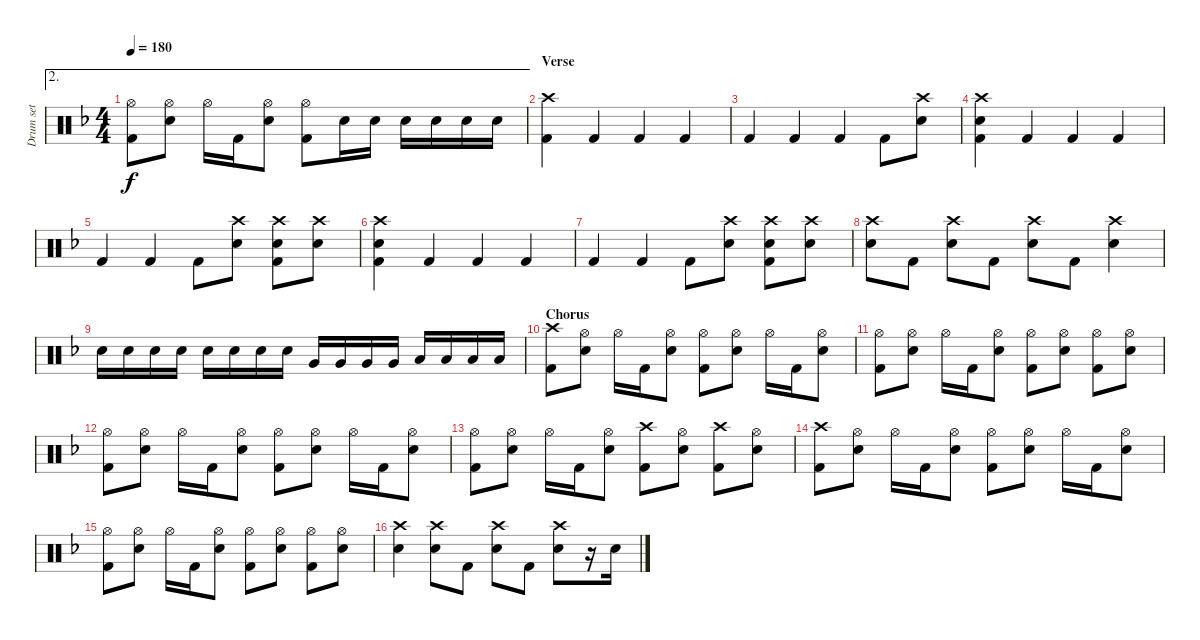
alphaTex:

\track ("Drum set" "Drum set") {instrument percussion}
\staff {score}
\articulation defaults
\ae 2
\ts (4 4)
\tempo 180
\clef neutral
\ks f
("Hi-Hat (open)" "Kick (hit) 2").8{dy f} ("Hi-Hat (open)" "Electric Snare (hit)").8 "Hi-Hat (open)".16 "Kick (hit) 2".16 ("Hi-Hat (open)" "Electric Snare (hit)").8 ("Hi-Hat (open)" "Kick (hit) 2").8 "Electric Snare (hit)".16 "Electric Snare (hit)".16 "Electric Snare (hit)".16 "Electric Snare (hit)".16 "Electric Snare (hit)".16 "Electric Snare (hit)".16 |
\section ("" "Verse")
("Crash high (hit)" "Kick (hit) 2").4 "Kick (hit) 2".4 "Kick (hit) 2".4 "Kick (hit) 2".4 |
"Kick (hit) 2".4 "Kick (hit) 2".4 "Kick (hit) 2".4 "Kick (hit) 2".8 ("Crash high (hit)" "Electric Snare (hit)").8 |
("Crash high (hit)" "Electric Snare (hit)" "Kick (hit) 2").4 "Kick (hit) 2".4 "Kick (hit) 2".4 "Kick (hit) 2".4 |
"Kick (hit) 2".4 "Kick (hit) 2".4 "Kick (hit) 2".8 ("Crash high (hit)" "Electric Snare (hit)").8 ("Crash high (hit)" "Electric Snare (hit)" "Kick (hit) 2").8 ("Crash high (hit)" "Electric Snare (hit)").8 |
("Crash high (hit)" "Electric Snare (hit)" "Kick (hit) 2").4 "Kick (hit) 2".4 "Kick (hit) 2".4 "Kick (hit) 2".4 |
"Kick (hit) 2".4 "Kick (hit) 2".4 "Kick (hit) 2".8 ("Crash high (hit)" "Electric Snare (hit)").8 ("Crash high (hit)" "Electric Snare (hit)" "Kick (hit) 2").8 ("Crash high (hit)" "Electric Snare (hit)").8 |
("Crash high (hit)" "Electric Snare (hit)").8 "Kick (hit) 2".8 ("Crash high (hit)" "Electric Snare (hit)").8 "Kick (hit) 2".8 ("Crash high (hit)" "Electric Snare (hit)").8 "Kick (hit) 2".8 ("Crash high (hit)" "Electric Snare (hit)").4 |
"Electric Snare (hit)".16 "Electric Snare (hit)".16 "Electric Snare (hit)".16 "Electric Snare (hit)".16 "Electric Snare (hit)".16 "Electric Snare (hit)".16 "Electric Snare (hit)".16 "Electric Snare (hit)".16 "Very Low Tom (hit)".16 "Very Low Tom (hit)".16 "Very Low Tom (hit)".16 "Very Low Tom (hit)".16 "Low Floor Tom (hit)".16 "Low Floor Tom (hit)".16 "Low Floor Tom (hit)".16 "Low Floor Tom (hit)".16 |
\section ("" "Chorus")
("Crash high (hit)" "Kick (hit) 2").8 ("Hi-Hat (open)" "Electric Snare (hit)").8 "Hi-Hat (open)".16 "Kick (hit) 2".16 ("Hi-Hat (open)" "Electric Snare (hit)").8 ("Hi-Hat (open)" "Kick (hit) 2").8 ("Hi-Hat (open)" "Electric Snare (hit)").8 "Hi-Hat (open)".16 "Kick (hit) 2".16 ("Hi-Hat (open)" "Electric Snare (hit)").8 |
("Hi-Hat (open)" "Kick (hit) 2").8 ("Hi-Hat (open)" "Electric Snare (hit)").8 "Hi-Hat (open)".16 "Kick (hit) 2".16 ("Hi-Hat (open)" "Electric Snare (hit)").8 ("Hi-Hat (open)" "Kick (hit) 2").8 ("Hi-Hat (open)" "Electric Snare (hit)").8 ("Hi-Hat (open)" "Kick (hit) 2").8 ("Hi-Hat (open)" "Electric Snare (hit)").8 |
("Hi-Hat (open)" "Kick (hit) 2").8 ("Hi-Hat (open)" "Electric Snare (hit)").8 "Hi-Hat (open)".16 "Kick (hit) 2".16 ("Hi-Hat (open)" "Electric Snare (hit)").8 ("Hi-Hat (open)" "Kick (hit) 2").8 ("Hi-Hat (open)" "Electric Snare (hit)").8 "Hi-Hat (open)".16 "Kick (hit) 2".16 ("Hi-Hat (open)" "Electric Snare (hit)").8 |
("Hi-Hat (open)" "Kick (hit) 2").8 ("Hi-Hat (open)" "Electric Snare (hit)").8 "Hi-Hat (open)".16 "Kick (hit) 2".16 ("Hi-Hat (open)" "Electric Snare (hit)").8 ("Crash high (hit)" "Kick (hit) 2").8 ("Hi-Hat (open)" "Electric Snare (hit)").8 ("Crash high (hit)" "Kick (hit) 2").8 ("Hi-Hat (open)" "Electric Snare (hit)").8 |
("Crash high (hit)" "Kick (hit) 2").8 ("Hi-Hat (open)" "Electric Snare (hit)").8 "Hi-Hat (open)".16 "Kick (hit) 2".16 ("Hi-Hat (open)" "Electric Snare (hit)").8 ("Hi-Hat (open)" "Kick (hit) 2").8 ("Hi-Hat (open)" "Electric Snare (hit)").8 "Hi-Hat (open)".16 "Kick (hit) 2".16 ("Hi-Hat (open)" "Electric Snare (hit)").8 |
("Hi-Hat (open)" "Kick (hit) 2").8 ("Hi-Hat (open)" "Electric Snare (hit)").8 "Hi-Hat (open)".16 "Kick (hit) 2".16 ("Hi-Hat (open)" "Electric Snare (hit)").8 ("Hi-Hat (open)" "Kick (hit) 2").8 ("Hi-Hat (open)" "Electric Snare (hit)").8 ("Hi-Hat (open)" "Kick (hit) 2").8 ("Hi-Hat (open)" "Electric Snare (hit)").8 |
("Crash high (hit)" "Electric Snare (hit)").4 ("Crash high (hit)" "Electric Snare (hit)").8 "Kick (hit) 2".8 ("Crash high (hit)" "Electric Snare (hit)").8 "Kick (hit) 2".8 ("Crash high (hit)" "Electric Snare (hit)").8 r.16 "Electric Snare (hit)".16
